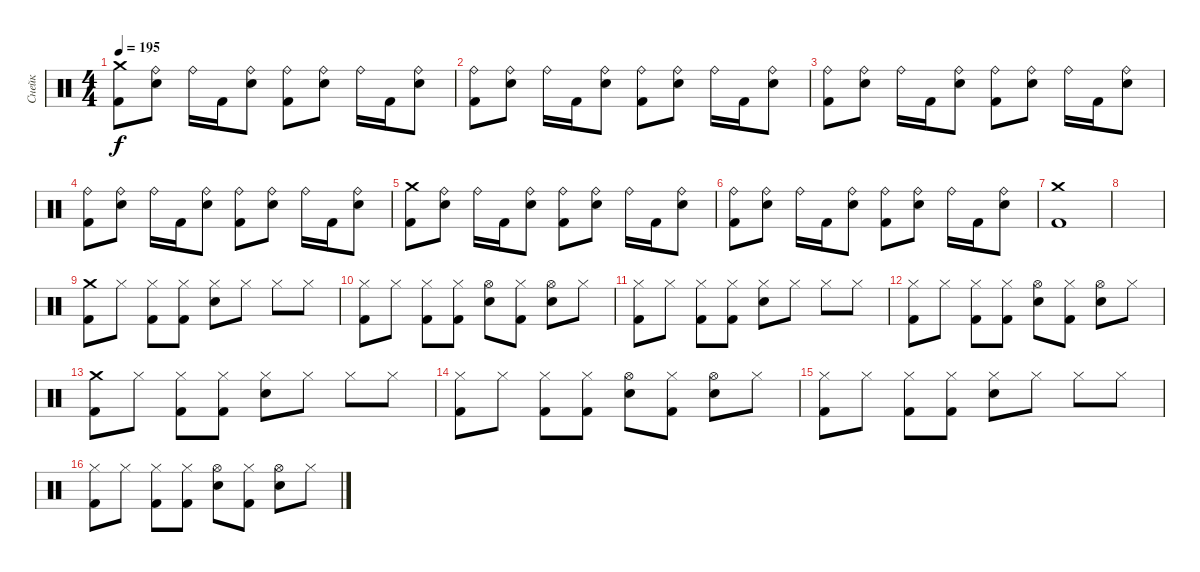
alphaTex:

\track ("Снейк" "Снейк") {instrument percussion}
\staff {score}
\articulation defaults
\ts (4 4)
\tempo 195
\clef neutral
\ks c
("Kick (hit) 2" "Crash medium (hit)").8{dy f} ("Electric Snare (hit)" "Ride (bell)").8 "Ride (bell)".16 "Kick (hit) 2".16 ("Electric Snare (hit)" "Ride (bell)").8 ("Kick (hit) 2" "Ride (bell)").8 ("Electric Snare (hit)" "Ride (bell)").8 "Ride (bell)".16 "Kick (hit) 2".16 ("Electric Snare (hit)" "Ride (bell)").8 |
("Kick (hit) 2" "Ride (bell)").8 ("Electric Snare (hit)" "Ride (bell)").8 "Ride (bell)".16 "Kick (hit) 2".16 ("Electric Snare (hit)" "Ride (bell)").8 ("Kick (hit) 2" "Ride (bell)").8 ("Electric Snare (hit)" "Ride (bell)").8 "Ride (bell)".16 "Kick (hit) 2".16 ("Electric Snare (hit)" "Ride (bell)").8 |
("Kick (hit) 2" "Ride (bell)").8 ("Electric Snare (hit)" "Ride (bell)").8 "Ride (bell)".16 "Kick (hit) 2".16 ("Electric Snare (hit)" "Ride (bell)").8 ("Kick (hit) 2" "Ride (bell)").8 ("Electric Snare (hit)" "Ride (bell)").8 "Ride (bell)".16 "Kick (hit) 2".16 ("Electric Snare (hit)" "Ride (bell)").8 |
("Kick (hit) 2" "Ride (bell)").8 ("Electric Snare (hit)" "Ride (bell)").8 "Ride (bell)".16 "Kick (hit) 2".16 ("Electric Snare (hit)" "Ride (bell)").8 ("Kick (hit) 2" "Ride (bell)").8 ("Electric Snare (hit)" "Ride (bell)").8 "Ride (bell)".16 "Kick (hit) 2".16 ("Electric Snare (hit)" "Ride (bell)").8 |
("Kick (hit) 2" "Crash medium (hit)").8 ("Electric Snare (hit)" "Ride (bell)").8 "Ride (bell)".16 "Kick (hit) 2".16 ("Electric Snare (hit)" "Ride (bell)").8 ("Kick (hit) 2" "Ride (bell)").8 ("Electric Snare (hit)" "Ride (bell)").8 "Ride (bell)".16 "Kick (hit) 2".16 ("Electric Snare (hit)" "Ride (bell)").8 |
("Kick (hit) 2" "Ride (bell)").8 ("Electric Snare (hit)" "Ride (bell)").8 "Ride (bell)".16 "Kick (hit) 2".16 ("Electric Snare (hit)" "Ride (bell)").8 ("Kick (hit) 2" "Ride (bell)").8 ("Electric Snare (hit)" "Ride (bell)").8 "Ride (bell)".16 "Kick (hit) 2".16 ("Electric Snare (hit)" "Ride (bell)").8 |
("Kick (hit) 2" "Crash medium (hit)").1 |
|
("Crash medium (hit)" "Kick (hit) 2").8 "Hi-Hat (closed)".8 ("Kick (hit) 2" "Hi-Hat (closed)").8 ("Kick (hit) 2" "Hi-Hat (closed)").8 ("Electric Snare (hit)" "Hi-Hat (closed)").8 "Hi-Hat (closed)".8 "Hi-Hat (closed)".8 "Hi-Hat (closed)".8 |
("Kick (hit) 2" "Hi-Hat (closed)").8 "Hi-Hat (closed)".8 ("Kick (hit) 2" "Hi-Hat (closed)").8 ("Kick (hit) 2" "Hi-Hat (closed)").8 ("Electric Snare (hit)" "Hi-Hat (open)").8 ("Kick (hit) 2" "Hi-Hat (closed)").8 ("Electric Snare (hit)" "Hi-Hat (open)").8 "Hi-Hat (closed)".8 |
("Kick (hit) 2" "Hi-Hat (closed)").8 "Hi-Hat (closed)".8 ("Kick (hit) 2" "Hi-Hat (closed)").8 ("Kick (hit) 2" "Hi-Hat (closed)").8 ("Electric Snare (hit)" "Hi-Hat (closed)").8 "Hi-Hat (closed)".8 "Hi-Hat (closed)".8 "Hi-Hat (closed)".8 |
("Kick (hit) 2" "Hi-Hat (closed)").8 "Hi-Hat (closed)".8 ("Kick (hit) 2" "Hi-Hat (closed)").8 ("Kick (hit) 2" "Hi-Hat (closed)").8 ("Electric Snare (hit)" "Hi-Hat (open)").8 ("Kick (hit) 2" "Hi-Hat (closed)").8 ("Electric Snare (hit)" "Hi-Hat (open)").8 "Hi-Hat (closed)".8 |
("Crash medium (hit)" "Kick (hit) 2").8 "Hi-Hat (closed)".8 ("Kick (hit) 2" "Hi-Hat (closed)").8 ("Kick (hit) 2" "Hi-Hat (closed)").8 ("Electric Snare (hit)" "Hi-Hat (closed)").8 "Hi-Hat (closed)".8 "Hi-Hat (closed)".8 "Hi-Hat (closed)".8 |
("Kick (hit) 2" "Hi-Hat (closed)").8 "Hi-Hat (closed)".8 ("Kick (hit) 2" "Hi-Hat (closed)").8 ("Kick (hit) 2" "Hi-Hat (closed)").8 ("Electric Snare (hit)" "Hi-Hat (open)").8 ("Kick (hit) 2" "Hi-Hat (closed)").8 ("Electric Snare (hit)" "Hi-Hat (open)").8 "Hi-Hat (closed)".8 |
("Kick (hit) 2" "Hi-Hat (closed)").8 "Hi-Hat (closed)".8 ("Kick (hit) 2" "Hi-Hat (closed)").8 ("Kick (hit) 2" "Hi-Hat (closed)").8 ("Electric Snare (hit)" "Hi-Hat (closed)").8 "Hi-Hat (closed)".8 "Hi-Hat (closed)".8 "Hi-Hat (closed)".8 |
("Kick (hit) 2" "Hi-Hat (closed)").8 "Hi-Hat (closed)".8 ("Kick (hit) 2" "Hi-Hat (closed)").8 ("Kick (hit) 2" "Hi-Hat (closed)").8 ("Electric Snare (hit)" "Hi-Hat (open)").8 ("Kick (hit) 2" "Hi-Hat (closed)").8 ("Electric Snare (hit)" "Hi-Hat (open)").8 "Hi-Hat (closed)".8
